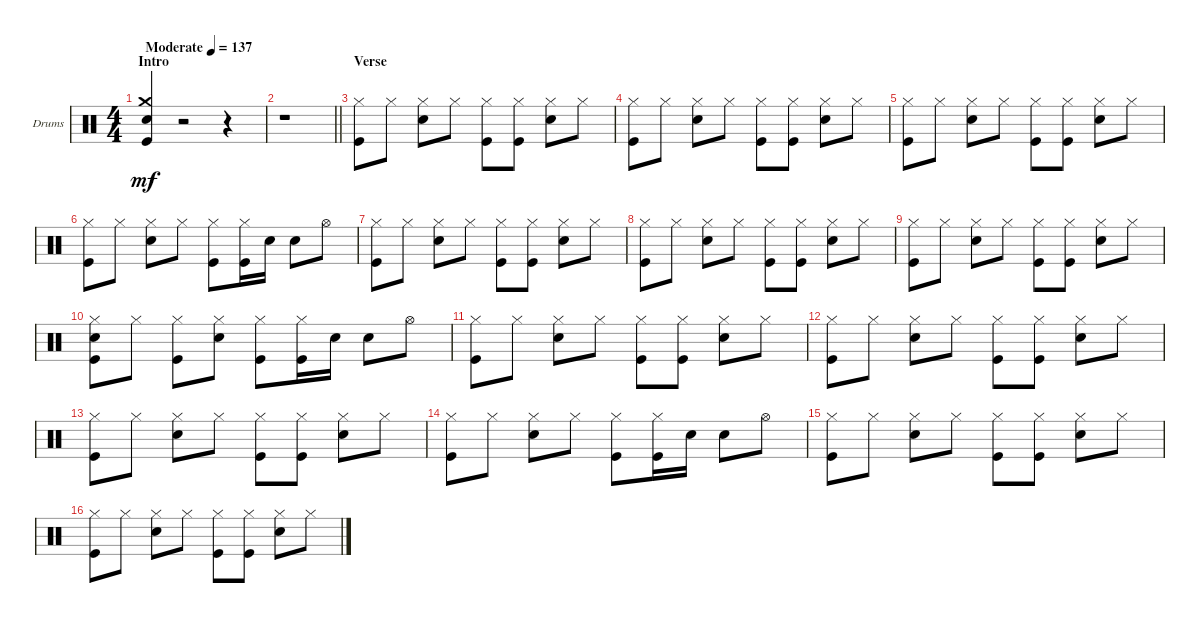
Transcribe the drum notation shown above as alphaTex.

\bracketExtendMode groupsimilarinstruments
\firstSystemTrackNameOrientation horizontal
\otherSystemsTrackNameOrientation horizontal
\track ("Fabrizio" "Drums") {instrument percussion}
\staff {score}
\articulation defaults
\ts (4 4)
\beaming (8 2 2 2 2)
\section ("" "Intro")
\tempo (137 "Moderate")
\clef neutral
\scale
0.262911
\ks c
("Kick (hit)" "Crash medium (hit)" "Snare (hit) 2").4{dy mf} r.2 r.4 |
\scale
0.262911
\barLineRight lightlight
r.1 |
\section ("" "Verse")
\scale
0.333333 ("Kick (hit)" "Hi-Hat (closed)").8 "Hi-Hat (closed)".8 ("Snare (hit) 2" "Hi-Hat (closed)").8 "Hi-Hat (closed)".8 ("Hi-Hat (closed)" "Kick (hit)").8 ("Hi-Hat (closed)" "Kick (hit)").8 ("Hi-Hat (closed)" "Snare (hit) 2").8 "Hi-Hat (closed)".8 |
\scale
0.333333 ("Kick (hit)" "Hi-Hat (closed)").8 "Hi-Hat (closed)".8 ("Snare (hit) 2" "Hi-Hat (closed)").8 "Hi-Hat (closed)".8 ("Hi-Hat (closed)" "Kick (hit)").8 ("Hi-Hat (closed)" "Kick (hit)").8 ("Hi-Hat (closed)" "Snare (hit) 2").8 "Hi-Hat (closed)".8 |
\scale
0.333333 ("Kick (hit)" "Hi-Hat (closed)").8 "Hi-Hat (closed)".8 ("Snare (hit) 2" "Hi-Hat (closed)").8 "Hi-Hat (closed)".8 ("Hi-Hat (closed)" "Kick (hit)").8 ("Hi-Hat (closed)" "Kick (hit)").8 ("Hi-Hat (closed)" "Snare (hit) 2").8 "Hi-Hat (closed)".8 |
\scale
0.333333 ("Kick (hit)" "Hi-Hat (closed)").8 "Hi-Hat (closed)".8 ("Snare (hit) 2" "Hi-Hat (closed)").8 "Hi-Hat (closed)".8 ("Hi-Hat (closed)" "Kick (hit)").8 ("Kick (hit)" "Hi-Hat (closed)").16 "Snare (hit) 2".16 "Snare (hit) 2".8 "Hi-Hat (open)".8 |
\scale
0.333333 ("Kick (hit)" "Hi-Hat (closed)").8 "Hi-Hat (closed)".8 ("Snare (hit) 2" "Hi-Hat (closed)").8 "Hi-Hat (closed)".8 ("Hi-Hat (closed)" "Kick (hit)").8 ("Hi-Hat (closed)" "Kick (hit)").8 ("Hi-Hat (closed)" "Snare (hit) 2").8 "Hi-Hat (closed)".8 |
\scale
0.333333 ("Kick (hit)" "Hi-Hat (closed)").8 "Hi-Hat (closed)".8 ("Snare (hit) 2" "Hi-Hat (closed)").8 "Hi-Hat (closed)".8 ("Hi-Hat (closed)" "Kick (hit)").8 ("Hi-Hat (closed)" "Kick (hit)").8 ("Hi-Hat (closed)" "Snare (hit) 2").8 "Hi-Hat (closed)".8 |
\scale
0.333333 ("Kick (hit)" "Hi-Hat (closed)").8 "Hi-Hat (closed)".8 ("Snare (hit) 2" "Hi-Hat (closed)").8 "Hi-Hat (closed)".8 ("Hi-Hat (closed)" "Kick (hit)").8 ("Hi-Hat (closed)" "Kick (hit)").8 ("Hi-Hat (closed)" "Snare (hit) 2").8 "Hi-Hat (closed)".8 |
\scale
0.333333 ("Snare (hit) 2" "Hi-Hat (closed)" "Kick (hit)").8 "Hi-Hat (closed)".8 ("Kick (hit)" "Hi-Hat (closed)").8 ("Snare (hit) 2" "Hi-Hat (closed)").8 ("Kick (hit)" "Hi-Hat (closed)").8 ("Hi-Hat (closed)" "Kick (hit)").16 "Snare (hit) 2".16 "Snare (hit) 2".8 "Hi-Hat (open)".8 |
\scale
0.333333 ("Kick (hit)" "Hi-Hat (closed)").8 "Hi-Hat (closed)".8 ("Snare (hit) 2" "Hi-Hat (closed)").8 "Hi-Hat (closed)".8 ("Hi-Hat (closed)" "Kick (hit)").8 ("Hi-Hat (closed)" "Kick (hit)").8 ("Hi-Hat (closed)" "Snare (hit) 2").8 "Hi-Hat (closed)".8 |
\scale
0.333333 ("Kick (hit)" "Hi-Hat (closed)").8 "Hi-Hat (closed)".8 ("Snare (hit) 2" "Hi-Hat (closed)").8 "Hi-Hat (closed)".8 ("Hi-Hat (closed)" "Kick (hit)").8 ("Hi-Hat (closed)" "Kick (hit)").8 ("Hi-Hat (closed)" "Snare (hit) 2").8 "Hi-Hat (closed)".8 |
\scale
0.333333 ("Kick (hit)" "Hi-Hat (closed)").8 "Hi-Hat (closed)".8 ("Snare (hit) 2" "Hi-Hat (closed)").8 "Hi-Hat (closed)".8 ("Hi-Hat (closed)" "Kick (hit)").8 ("Hi-Hat (closed)" "Kick (hit)").8 ("Hi-Hat (closed)" "Snare (hit) 2").8 "Hi-Hat (closed)".8 |
\scale
0.333333 ("Kick (hit)" "Hi-Hat (closed)").8 "Hi-Hat (closed)".8 ("Snare (hit) 2" "Hi-Hat (closed)").8 "Hi-Hat (closed)".8 ("Hi-Hat (closed)" "Kick (hit)").8 ("Kick (hit)" "Hi-Hat (closed)").16 "Snare (hit) 2".16 "Snare (hit) 2".8 "Hi-Hat (open)".8 |
\scale
0.333333 ("Kick (hit)" "Hi-Hat (closed)").8 "Hi-Hat (closed)".8 ("Snare (hit) 2" "Hi-Hat (closed)").8 "Hi-Hat (closed)".8 ("Hi-Hat (closed)" "Kick (hit)").8 ("Hi-Hat (closed)" "Kick (hit)").8 ("Hi-Hat (closed)" "Snare (hit) 2").8 "Hi-Hat (closed)".8 |
\scale
0.333333 ("Kick (hit)" "Hi-Hat (closed)").8 "Hi-Hat (closed)".8 ("Snare (hit) 2" "Hi-Hat (closed)").8 "Hi-Hat (closed)".8 ("Hi-Hat (closed)" "Kick (hit)").8 ("Hi-Hat (closed)" "Kick (hit)").8 ("Hi-Hat (closed)" "Snare (hit) 2").8 "Hi-Hat (closed)".8
